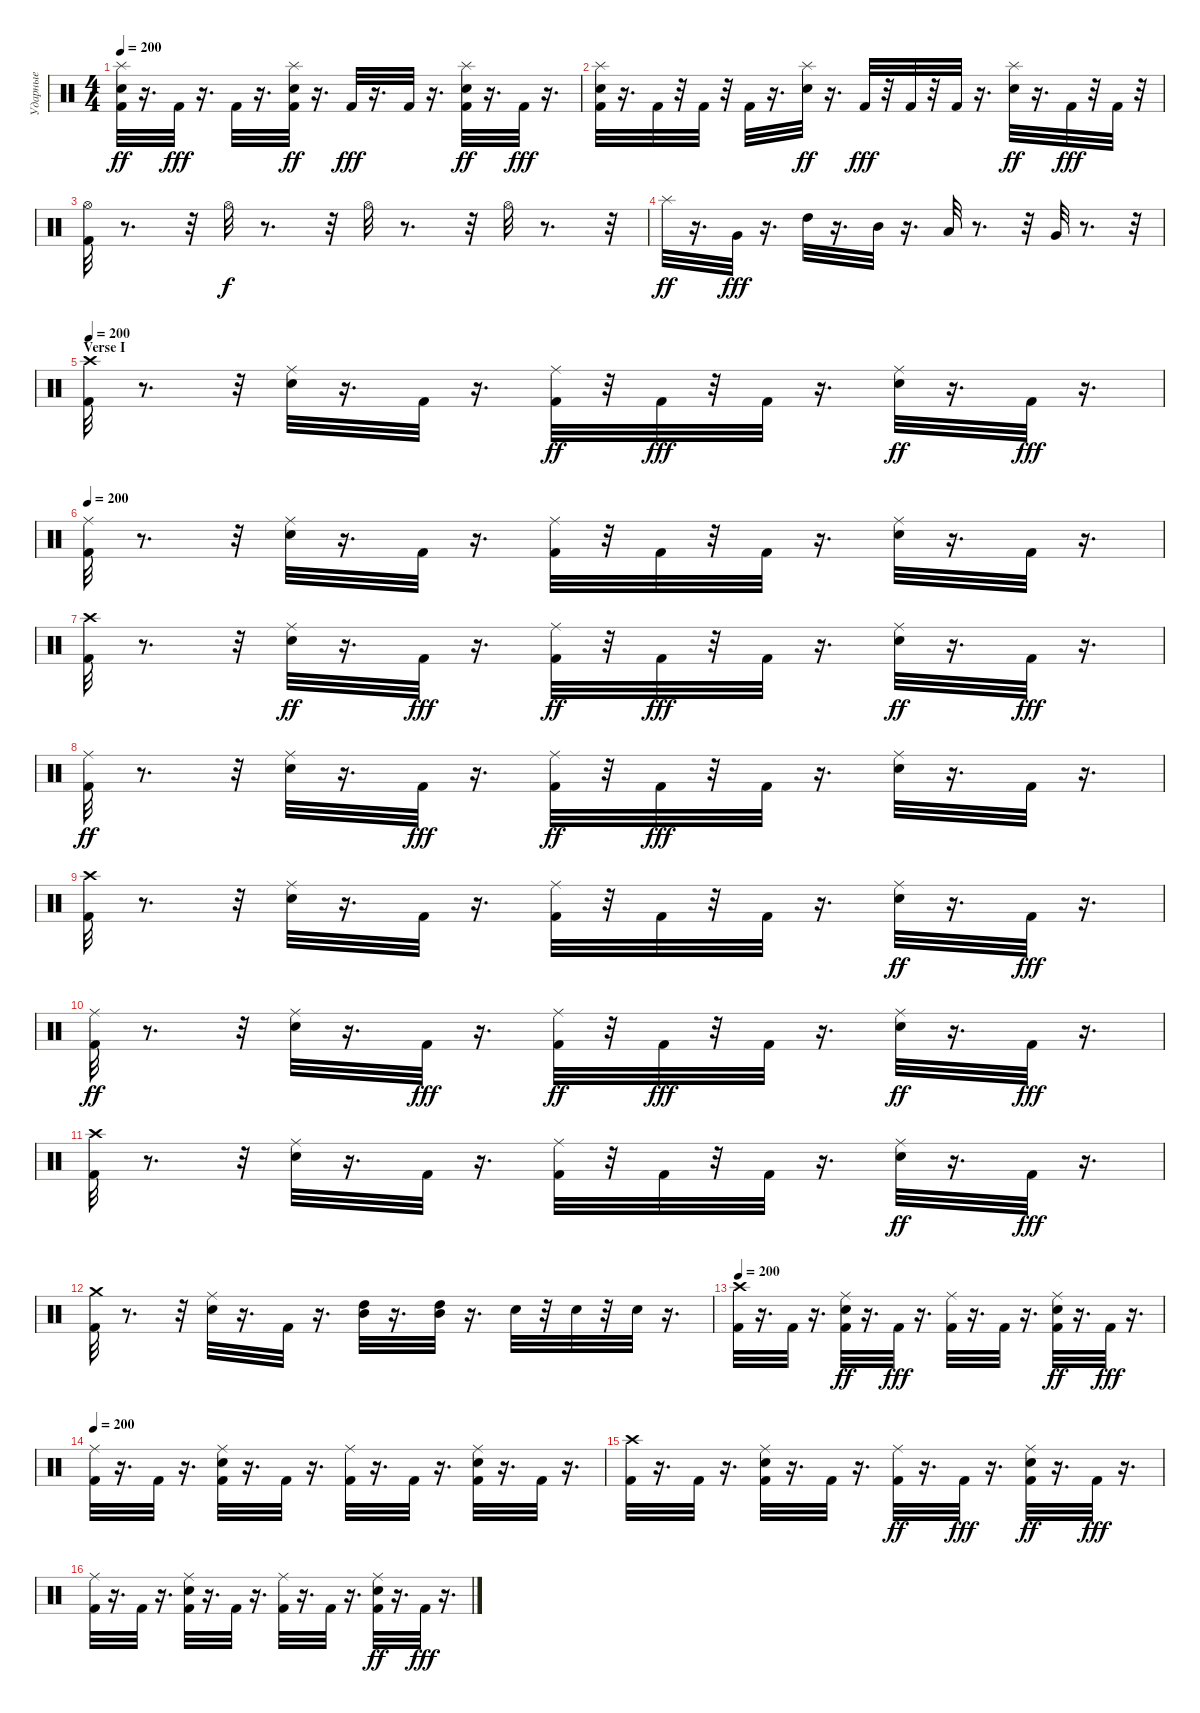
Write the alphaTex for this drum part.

\track ("Ударные" "Ударные") {instrument percussion}
\staff {score}
\articulation defaults
\ts (4 4)
\tempo 200
\clef neutral
\ks c
("Kick (hit) 2" "Snare (hit) 2" "Splash (hit)").32{dy ff} r.16{d} "Kick (hit) 2".32{dy fff} r.16{d} "Kick (hit) 2".32 r.16{d} ("Kick (hit) 2" "Snare (hit) 2" "Splash (hit)").32{dy ff} r.16{d} "Kick (hit) 2".32{dy fff} r.16{d} "Kick (hit) 2".32 r.16{d} ("Kick (hit) 2" "Snare (hit) 2" "Splash (hit)").32{dy ff} r.16{d} "Kick (hit) 2".32{dy fff} r.16{d} |
("Kick (hit) 2" "Splash (hit)" "Snare (hit) 2").32 r.16{d} "Kick (hit) 2".32 r.32 "Kick (hit) 2".32 r.32 "Kick (hit) 2".32 r.16{d} ("Snare (hit) 2" "Splash (hit)").32{dy ff} r.16{d} "Kick (hit) 2".32{dy fff} r.32 "Kick (hit) 2".32 r.32 "Kick (hit) 2".32 r.16{d} ("Snare (hit) 2" "Splash (hit)").32{dy ff} r.16{d} "Kick (hit) 2".32{dy fff} r.32 "Kick (hit) 2".32 r.32 |
("Hi-Hat (open)" "Kick (hit) 2").32 r.8{d} r.32 "Hi-Hat (open)".32{dy f} r.8{d} r.32 "Hi-Hat (open)".32 r.8{d} r.32 "Hi-Hat (open)".32 r.8{d} r.32 |
"Splash (hit)".32{dy ff} r.16{d} "Very Low Tom (hit)".32{dy fff} r.16{d} "High Tom (hit)".32 r.16{d} "Mid Tom (hit)".32 r.16{d} "Low Tom (hit)".32 r.8{d} r.32 "Very Low Tom (hit)".32 r.8{d} r.32 |
\section ("" "Verse I")
\tempo 200
("Crash high (hit)" "Kick (hit) 2").32 r.8{d} r.32 ("Ride (middle)" "Snare (hit) 2").32 r.16{d} "Kick (hit) 2".32 r.16{d} ("Kick (hit) 2" "Ride (middle)").32{dy ff} r.32 "Kick (hit) 2".32{dy fff} r.32 "Kick (hit) 2".32 r.16{d} ("Snare (hit) 2" "Ride (middle)").32{dy ff} r.16{d} "Kick (hit) 2".32{dy fff} r.16{d} |
\tempo 200
("Ride (middle)" "Kick (hit) 2").32 r.8{d} r.32 ("Ride (middle)" "Snare (hit) 2").32 r.16{d} "Kick (hit) 2".32 r.16{d} ("Ride (middle)" "Kick (hit) 2").32 r.32 "Kick (hit) 2".32 r.32 "Kick (hit) 2".32 r.16{d} ("Ride (middle)" "Snare (hit) 2").32 r.16{d} "Kick (hit) 2".32 r.16{d} |
("Crash high (hit)" "Kick (hit) 2").32 r.8{d} r.32 ("Snare (hit) 2" "Ride (middle)").32{dy ff} r.16{d} "Kick (hit) 2".32{dy fff} r.16{d} ("Kick (hit) 2" "Ride (middle)").32{dy ff} r.32 "Kick (hit) 2".32{dy fff} r.32 "Kick (hit) 2".32 r.16{d} ("Snare (hit) 2" "Ride (middle)").32{dy ff} r.16{d} "Kick (hit) 2".32{dy fff} r.16{d} |
("Kick (hit) 2" "Ride (middle)").32{dy ff} r.8{d} r.32 ("Snare (hit) 2" "Ride (middle)").32 r.16{d} "Kick (hit) 2".32{dy fff} r.16{d} ("Kick (hit) 2" "Ride (middle)").32{dy ff} r.32 "Kick (hit) 2".32{dy fff} r.32 "Kick (hit) 2".32 r.16{d} ("Ride (middle)" "Snare (hit) 2").32 r.16{d} "Kick (hit) 2".32 r.16{d} |
("Crash high (hit)" "Kick (hit) 2").32 r.8{d} r.32 ("Ride (middle)" "Snare (hit) 2").32 r.16{d} "Kick (hit) 2".32 r.16{d} ("Ride (middle)" "Kick (hit) 2").32 r.32 "Kick (hit) 2".32 r.32 "Kick (hit) 2".32 r.16{d} ("Snare (hit) 2" "Ride (middle)").32{dy ff} r.16{d} "Kick (hit) 2".32{dy fff} r.16{d} |
("Kick (hit) 2" "Ride (middle)").32{dy ff} r.8{d} r.32 ("Snare (hit) 2" "Ride (middle)").32 r.16{d} "Kick (hit) 2".32{dy fff} r.16{d} ("Kick (hit) 2" "Ride (middle)").32{dy ff} r.32 "Kick (hit) 2".32{dy fff} r.32 "Kick (hit) 2".32 r.16{d} ("Snare (hit) 2" "Ride (middle)").32{dy ff} r.16{d} "Kick (hit) 2".32{dy fff} r.16{d} |
("Crash high (hit)" "Kick (hit) 2").32 r.8{d} r.32 ("Ride (middle)" "Snare (hit) 2").32 r.16{d} "Kick (hit) 2".32 r.16{d} ("Ride (middle)" "Kick (hit) 2").32 r.32 "Kick (hit) 2".32 r.32 "Kick (hit) 2".32 r.16{d} ("Snare (hit) 2" "Ride (middle)").32{dy ff} r.16{d} "Kick (hit) 2".32{dy fff} r.16{d} |
("Crash medium (hit)" "Kick (hit) 2").32 r.8{d} r.32 ("Ride (middle)" "Snare (hit) 2").32 r.16{d} "Kick (hit) 2".32 r.16{d} ("Mid Tom (hit)" "High Tom (hit)").32 r.16{d} ("Mid Tom (hit)" "High Tom (hit)").32 r.16{d} "Snare (hit) 2".32 r.32 "Snare (hit) 2".32 r.32 "Snare (hit) 2".32 r.16{d} |
\tempo 200
("Crash high (hit)" "Kick (hit) 2").32 r.16{d} "Kick (hit) 2".32 r.16{d} ("Kick (hit) 2" "Snare (hit) 2" "Ride (middle)").32{dy ff} r.16{d} "Kick (hit) 2".32{dy fff} r.16{d} ("Ride (middle)" "Kick (hit) 2").32 r.16{d} "Kick (hit) 2".32 r.16{d} ("Kick (hit) 2" "Snare (hit) 2" "Ride (middle)").32{dy ff} r.16{d} "Kick (hit) 2".32{dy fff} r.16{d} |
\tempo 200
("Ride (middle)" "Kick (hit) 2").32 r.16{d} "Kick (hit) 2".32 r.16{d} ("Kick (hit) 2" "Ride (middle)" "Snare (hit) 2").32 r.16{d} "Kick (hit) 2".32 r.16{d} ("Ride (middle)" "Kick (hit) 2").32 r.16{d} "Kick (hit) 2".32 r.16{d} ("Kick (hit) 2" "Ride (middle)" "Snare (hit) 2").32 r.16{d} "Kick (hit) 2".32 r.16{d} |
("Crash high (hit)" "Kick (hit) 2").32 r.16{d} "Kick (hit) 2".32 r.16{d} ("Kick (hit) 2" "Ride (middle)" "Snare (hit) 2").32 r.16{d} "Kick (hit) 2".32 r.16{d} ("Kick (hit) 2" "Ride (middle)").32{dy ff} r.16{d} "Kick (hit) 2".32{dy fff} r.16{d} ("Kick (hit) 2" "Snare (hit) 2" "Ride (middle)").32{dy ff} r.16{d} "Kick (hit) 2".32{dy fff} r.16{d} |
("Ride (middle)" "Kick (hit) 2").32 r.16{d} "Kick (hit) 2".32 r.16{d} ("Kick (hit) 2" "Ride (middle)" "Snare (hit) 2").32 r.16{d} "Kick (hit) 2".32 r.16{d} ("Ride (middle)" "Kick (hit) 2").32 r.16{d} "Kick (hit) 2".32 r.16{d} ("Kick (hit) 2" "Snare (hit) 2" "Ride (middle)").32{dy ff} r.16{d} "Kick (hit) 2".32{dy fff} r.16{d}
